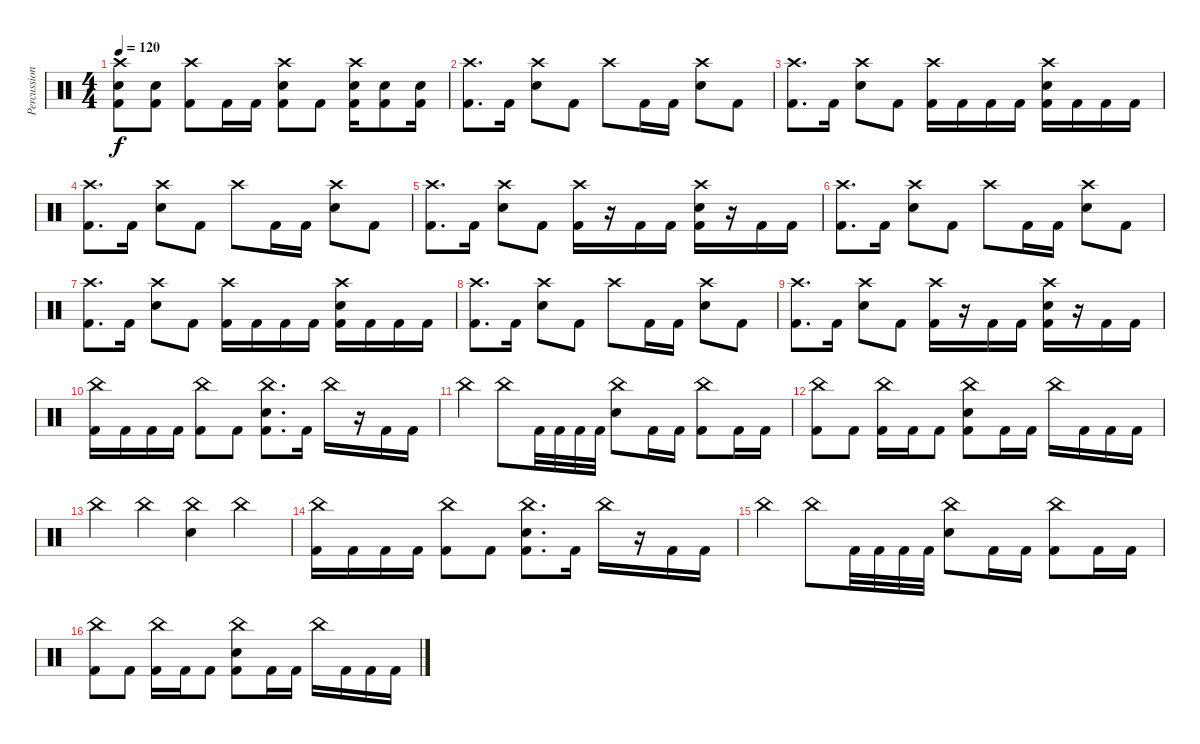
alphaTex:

\track ("Percussion" "Percussion") {instrument percussion}
\staff {score}
\articulation defaults
\ts (4 4)
\tempo 120
\clef neutral
\ks c
("Crash high (hit)" "Snare (hit) 2" "Kick (hit) 2").8{dy f} ("Snare (hit) 2" "Kick (hit) 2").8 ("Crash high (hit)" "Kick (hit) 2").8 "Kick (hit) 2".16 "Kick (hit) 2".16 ("Crash high (hit)" "Snare (hit) 2" "Kick (hit) 2").8 "Kick (hit) 2".8 ("Crash high (hit)" "Snare (hit) 2" "Kick (hit) 2").16 ("Snare (hit) 2" "Kick (hit) 2").8 ("Snare (hit) 2" "Kick (hit) 2").16 |
("Crash high (hit)" "Kick (hit) 2").8{d} "Kick (hit) 2".16 ("Crash high (hit)" "Snare (hit) 2").8 "Kick (hit) 2".8 "Crash high (hit)".8 "Kick (hit) 2".16 "Kick (hit) 2".16 ("Crash high (hit)" "Snare (hit) 2").8 "Kick (hit) 2".8 |
("Crash high (hit)" "Kick (hit) 2").8{d} "Kick (hit) 2".16 ("Crash high (hit)" "Snare (hit) 2").8 "Kick (hit) 2".8 ("Crash high (hit)" "Kick (hit) 2").16 "Kick (hit) 2".16 "Kick (hit) 2".16 "Kick (hit) 2".16 ("Crash high (hit)" "Snare (hit) 2" "Kick (hit) 2").16 "Kick (hit) 2".16 "Kick (hit) 2".16 "Kick (hit) 2".16 |
("Crash high (hit)" "Kick (hit) 2").8{d} "Kick (hit) 2".16 ("Crash high (hit)" "Snare (hit) 2").8 "Kick (hit) 2".8 "Crash high (hit)".8 "Kick (hit) 2".16 "Kick (hit) 2".16 ("Crash high (hit)" "Snare (hit) 2").8 "Kick (hit) 2".8 |
("Crash high (hit)" "Kick (hit) 2").8{d} "Kick (hit) 2".16 ("Crash high (hit)" "Snare (hit) 2").8 "Kick (hit) 2".8 ("Crash high (hit)" "Kick (hit) 2").16 r.16 "Kick (hit) 2".16 "Kick (hit) 2".16 ("Crash high (hit)" "Snare (hit) 2" "Kick (hit) 2").16 r.16 "Kick (hit) 2".16 "Kick (hit) 2".16 |
("Crash high (hit)" "Kick (hit) 2").8{d} "Kick (hit) 2".16 ("Crash high (hit)" "Snare (hit) 2").8 "Kick (hit) 2".8 "Crash high (hit)".8 "Kick (hit) 2".16 "Kick (hit) 2".16 ("Crash high (hit)" "Snare (hit) 2").8 "Kick (hit) 2".8 |
("Crash high (hit)" "Kick (hit) 2").8{d} "Kick (hit) 2".16 ("Crash high (hit)" "Snare (hit) 2").8 "Kick (hit) 2".8 ("Crash high (hit)" "Kick (hit) 2").16 "Kick (hit) 2".16 "Kick (hit) 2".16 "Kick (hit) 2".16 ("Crash high (hit)" "Snare (hit) 2" "Kick (hit) 2").16 "Kick (hit) 2".16 "Kick (hit) 2".16 "Kick (hit) 2".16 |
("Crash high (hit)" "Kick (hit) 2").8{d} "Kick (hit) 2".16 ("Crash high (hit)" "Snare (hit) 2").8 "Kick (hit) 2".8 "Crash high (hit)".8 "Kick (hit) 2".16 "Kick (hit) 2".16 ("Crash high (hit)" "Snare (hit) 2").8 "Kick (hit) 2".8 |
("Crash high (hit)" "Kick (hit) 2").8{d} "Kick (hit) 2".16 ("Crash high (hit)" "Snare (hit) 2").8 "Kick (hit) 2".8 ("Crash high (hit)" "Kick (hit) 2").16 r.16 "Kick (hit) 2".16 "Kick (hit) 2".16 ("Crash high (hit)" "Snare (hit) 2" "Kick (hit) 2").16 r.16 "Kick (hit) 2".16 "Kick (hit) 2".16 |
("China (hit)" "Kick (hit) 2").16 "Kick (hit) 2".16 "Kick (hit) 2".16 "Kick (hit) 2".16 ("China (hit)" "Kick (hit) 2").8 "Kick (hit) 2".8 ("China (hit)" "Snare (hit) 2" "Kick (hit) 2").8{d} "Kick (hit) 2".16 "China (hit)".16 r.16 "Kick (hit) 2".16 "Kick (hit) 2".16 |
"China (hit)".4 "China (hit)".8 "Kick (hit) 2".32 "Kick (hit) 2".32 "Kick (hit) 2".32 "Kick (hit) 2".32 ("China (hit)" "Snare (hit) 2").8 "Kick (hit) 2".16 "Kick (hit) 2".16 ("China (hit)" "Kick (hit) 2").8 "Kick (hit) 2".16 "Kick (hit) 2".16 |
("China (hit)" "Kick (hit) 2").8 "Kick (hit) 2".8 ("China (hit)" "Kick (hit) 2").16 "Kick (hit) 2".16 "Kick (hit) 2".8 ("China (hit)" "Snare (hit) 2" "Kick (hit) 2").8 "Kick (hit) 2".16 "Kick (hit) 2".16 "China (hit)".16 "Kick (hit) 2".16 "Kick (hit) 2".16 "Kick (hit) 2".16 |
"China (hit)".4 "China (hit)".4 ("China (hit)" "Snare (hit) 2").4 "China (hit)".4 |
("China (hit)" "Kick (hit) 2").16 "Kick (hit) 2".16 "Kick (hit) 2".16 "Kick (hit) 2".16 ("China (hit)" "Kick (hit) 2").8 "Kick (hit) 2".8 ("China (hit)" "Snare (hit) 2" "Kick (hit) 2").8{d} "Kick (hit) 2".16 "China (hit)".16 r.16 "Kick (hit) 2".16 "Kick (hit) 2".16 |
"China (hit)".4 "China (hit)".8 "Kick (hit) 2".32 "Kick (hit) 2".32 "Kick (hit) 2".32 "Kick (hit) 2".32 ("China (hit)" "Snare (hit) 2").8 "Kick (hit) 2".16 "Kick (hit) 2".16 ("China (hit)" "Kick (hit) 2").8 "Kick (hit) 2".16 "Kick (hit) 2".16 |
("China (hit)" "Kick (hit) 2").8 "Kick (hit) 2".8 ("China (hit)" "Kick (hit) 2").16 "Kick (hit) 2".16 "Kick (hit) 2".8 ("China (hit)" "Snare (hit) 2" "Kick (hit) 2").8 "Kick (hit) 2".16 "Kick (hit) 2".16 "China (hit)".16 "Kick (hit) 2".16 "Kick (hit) 2".16 "Kick (hit) 2".16
